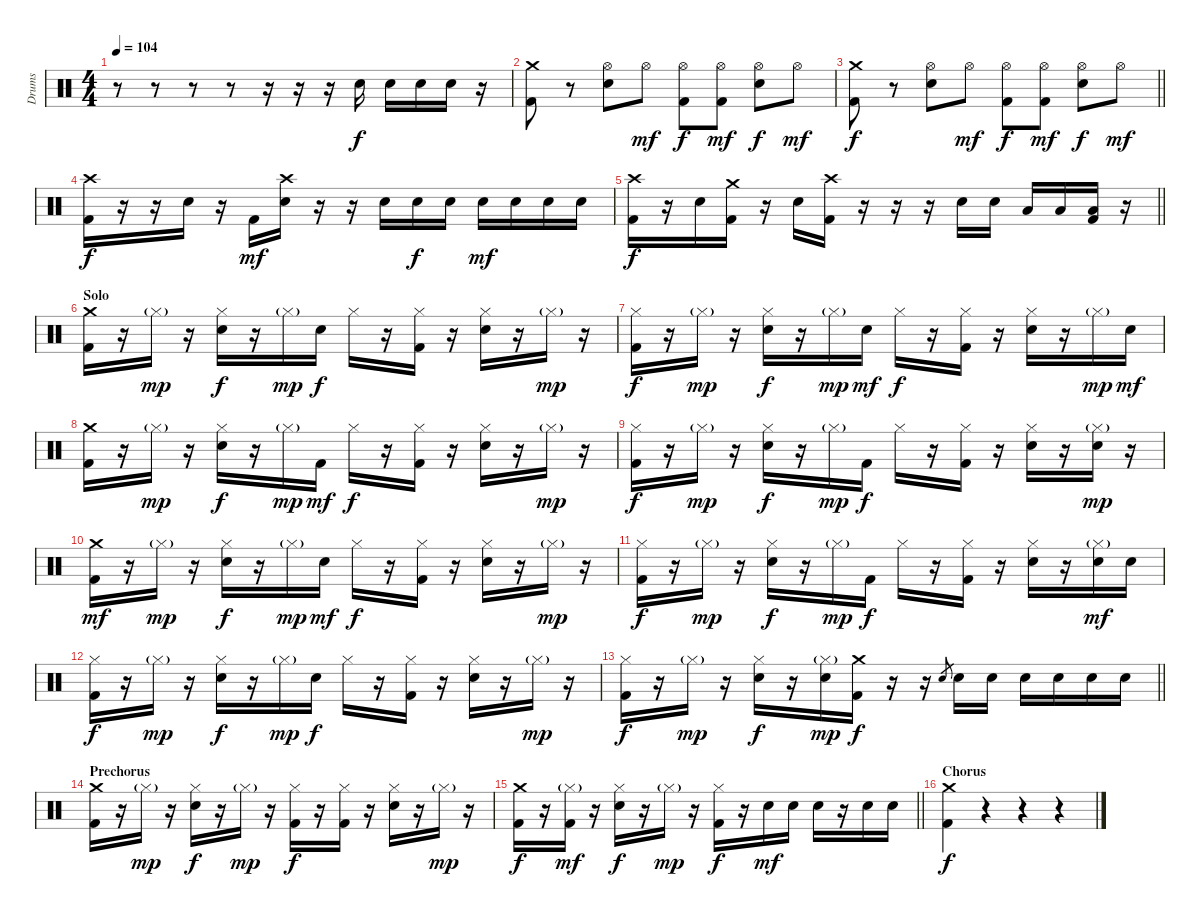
\track ("Drums" "Drums") {instrument percussion}
\staff {score}
\articulation defaults
\ts (4 4)
\tempo 104
\clef neutral
\ks c
r.8{dy f} r.8 r.8 r.8 r.16 r.16 r.16 "Snare (hit) 2".16 "Snare (hit) 2".16 "Snare (hit) 2".16 "Snare (hit) 2".16 r.16 |
("Crash medium (hit)" "Kick (hit) 2").8 r.8 ("Hi-Hat (open)" "Snare (hit) 2").8 "Hi-Hat (open)".8{dy mf} ("Hi-Hat (open)" "Kick (hit) 2").8{dy f} ("Hi-Hat (open)" "Kick (hit) 2").8{dy mf} ("Hi-Hat (open)" "Snare (hit) 2").8{dy f} "Hi-Hat (open)".8{dy mf} |
\barLineRight lightlight
("Crash medium (hit)" "Kick (hit) 2").8{dy f} r.8 ("Hi-Hat (open)" "Snare (hit) 2").8 "Hi-Hat (open)".8{dy mf} ("Hi-Hat (open)" "Kick (hit) 2").8{dy f} ("Hi-Hat (open)" "Kick (hit) 2").8{dy mf} ("Hi-Hat (open)" "Snare (hit) 2").8{dy f} "Hi-Hat (open)".8{dy mf} |
("Crash high (hit)" "Kick (hit) 2").16{dy f} r.16 r.16 "Snare (hit) 2".16 r.16 "Kick (hit) 2".16{dy mf} ("Crash high (hit)" "Snare (hit) 2").16 r.16 r.16 "Snare (hit) 2".16 "Snare (hit) 2".16{dy f} "Snare (hit) 2".16 "Snare (hit) 2".16{dy mf} "Snare (hit) 2".16 "Snare (hit) 2".16 "Snare (hit) 2".16 |
\barLineRight lightlight
("Crash high (hit)" "Kick (hit) 2").16{dy f} r.16 "Snare (hit) 2".16 ("Crash medium (hit)" "Kick (hit) 2").16 r.16 "Snare (hit) 2".16 ("Crash high (hit)" "Kick (hit) 2").16 r.16 r.16 r.16 "Snare (hit) 2".16 "Snare (hit) 2".16 "Low Tom (hit)".16 "Low Tom (hit)".16 ("Low Floor Tom (hit)" "Kick (hit) 2").16 r.16 |
\section ("" "Solo")
("Crash medium (hit)" "Kick (hit) 2").16 r.16 "Hi-Hat (closed)"{g}.16{dy mp} r.16 ("Hi-Hat (closed)" "Snare (hit) 2").16{dy f} r.16 "Hi-Hat (closed)"{g}.16{dy mp} "Snare (hit) 2".16{dy f} "Hi-Hat (closed)".16 r.16 ("Hi-Hat (closed)" "Kick (hit) 2").16 r.16 ("Hi-Hat (closed)" "Snare (hit) 2").16 r.16 "Hi-Hat (closed)"{g}.16{dy mp} r.16 |
("Hi-Hat (closed)" "Kick (hit) 2").16{dy f} r.16 "Hi-Hat (closed)"{g}.16{dy mp} r.16 ("Hi-Hat (closed)" "Snare (hit) 2").16{dy f} r.16 "Hi-Hat (closed)"{g}.16{dy mp} "Snare (hit) 2".16{dy mf} "Hi-Hat (closed)".16{dy f} r.16 ("Hi-Hat (closed)" "Kick (hit) 2").16 r.16 ("Hi-Hat (closed)" "Snare (hit) 2").16 r.16 "Hi-Hat (closed)"{g}.16{dy mp} "Snare (hit) 2".16{dy mf} |
("Crash medium (hit)" "Kick (hit) 2").16 r.16 "Hi-Hat (closed)"{g}.16{dy mp} r.16 ("Hi-Hat (closed)" "Snare (hit) 2").16{dy f} r.16 "Hi-Hat (closed)"{g}.16{dy mp} "Kick (hit) 2".16{dy mf} "Hi-Hat (closed)".16{dy f} r.16 ("Hi-Hat (closed)" "Kick (hit) 2").16 r.16 ("Hi-Hat (closed)" "Snare (hit) 2").16 r.16 "Hi-Hat (closed)"{g}.16{dy mp} r.16 |
("Hi-Hat (closed)" "Kick (hit) 2").16{dy f} r.16 "Hi-Hat (closed)"{g}.16{dy mp} r.16 ("Hi-Hat (closed)" "Snare (hit) 2").16{dy f} r.16 "Hi-Hat (closed)"{g}.16{dy mp} "Kick (hit) 2".16{dy f} "Hi-Hat (closed)".16 r.16 ("Hi-Hat (closed)" "Kick (hit) 2").16 r.16 ("Hi-Hat (closed)" "Snare (hit) 2").16 r.16 ("Hi-Hat (closed)"{g} "Snare (hit) 2").16{dy mp} r.16 |
("Crash medium (hit)" "Kick (hit) 2").16{dy mf} r.16 "Hi-Hat (closed)"{g}.16{dy mp} r.16 ("Hi-Hat (closed)" "Snare (hit) 2").16{dy f} r.16 "Hi-Hat (closed)"{g}.16{dy mp} "Snare (hit) 2".16{dy mf} "Hi-Hat (closed)".16{dy f} r.16 ("Hi-Hat (closed)" "Kick (hit) 2").16 r.16 ("Hi-Hat (closed)" "Snare (hit) 2").16 r.16 "Hi-Hat (closed)"{g}.16{dy mp} r.16 |
("Hi-Hat (closed)" "Kick (hit) 2").16{dy f} r.16 "Hi-Hat (closed)"{g}.16{dy mp} r.16 ("Hi-Hat (closed)" "Snare (hit) 2").16{dy f} r.16 "Hi-Hat (closed)"{g}.16{dy mp} "Kick (hit) 2".16{dy f} "Hi-Hat (closed)".16 r.16 ("Hi-Hat (closed)" "Kick (hit) 2").16 r.16 ("Hi-Hat (closed)" "Snare (hit) 2").16 r.16 ("Hi-Hat (closed)"{g} "Snare (hit) 2").16{dy mf} "Snare (hit) 2".16 |
("Hi-Hat (closed)" "Kick (hit) 2").16{dy f} r.16 "Hi-Hat (closed)"{g}.16{dy mp} r.16 ("Hi-Hat (closed)" "Snare (hit) 2").16{dy f} r.16 "Hi-Hat (closed)"{g}.16{dy mp} "Snare (hit) 2".16{dy f} "Hi-Hat (closed)".16 r.16 ("Hi-Hat (closed)" "Kick (hit) 2").16 r.16 ("Hi-Hat (closed)" "Snare (hit) 2").16 r.16 "Hi-Hat (closed)"{g}.16{dy mp} r.16 |
\barLineRight lightlight
("Hi-Hat (closed)" "Kick (hit) 2").16{dy f} r.16 "Hi-Hat (closed)"{g}.16{dy mp} r.16 ("Hi-Hat (closed)" "Snare (hit) 2").16{dy f} r.16 ("Hi-Hat (closed)"{g} "Snare (hit) 2").16{dy mp} ("Crash medium (hit)" "Kick (hit) 2").16{dy f} r.16 r.16 "Snare (hit) 2".8{gr} "Snare (hit) 2".16 "Snare (hit) 2".16 "Snare (hit) 2".16 "Snare (hit) 2".16 "Snare (hit) 2".16 "Snare (hit) 2".16 |
\section ("" "Prechorus")
("Crash medium (hit)" "Kick (hit) 2").16 r.16 "Hi-Hat (closed)"{g}.16{dy mp} r.16 ("Hi-Hat (closed)" "Snare (hit) 2").16{dy f} r.16 "Hi-Hat (closed)"{g}.16{dy mp} r.16 ("Hi-Hat (closed)" "Kick (hit) 2").16{dy f} r.16 ("Hi-Hat (closed)" "Kick (hit) 2").16 r.16 ("Hi-Hat (closed)" "Snare (hit) 2").16 r.16 "Hi-Hat (closed)"{g}.16{dy mp} r.16 |
\barLineRight lightlight
("Crash medium (hit)" "Kick (hit) 2").16{dy f} r.16 ("Hi-Hat (closed)"{g} "Kick (hit) 2").16{dy mf} r.16 ("Hi-Hat (closed)" "Snare (hit) 2").16{dy f} r.16 "Hi-Hat (closed)"{g}.16{dy mp} r.16 ("Hi-Hat (closed)" "Kick (hit) 2").16{dy f} r.16 "Snare (hit) 2".16{dy mf} "Snare (hit) 2".16 "Snare (hit) 2".16 r.16 "Snare (hit) 2".16 "Snare (hit) 2".16 |
\section ("" "Chorus")
("Crash medium (hit)" "Kick (hit) 2").4{dy f} r.4 r.4 r.4
